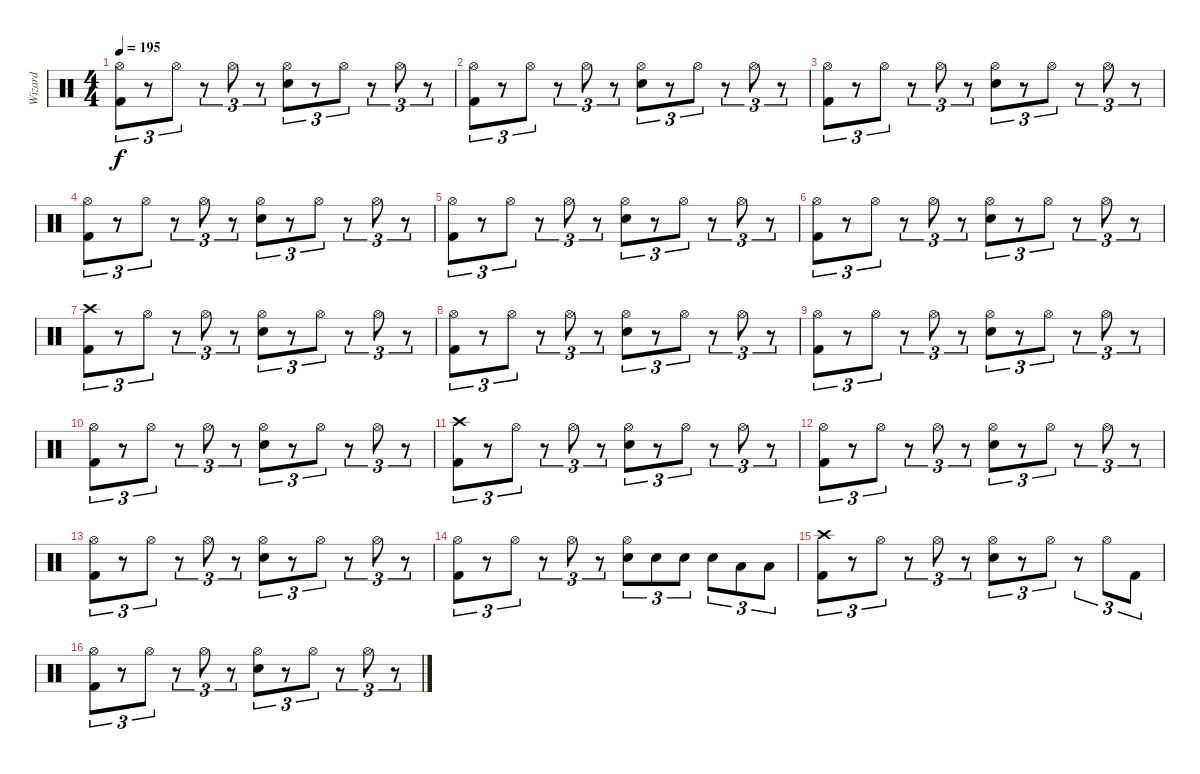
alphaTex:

\track ("Wizard" "Wizard") {instrument percussion}
\staff {score}
\articulation defaults
\ts (4 4)
\tempo 195
\clef neutral
\ks c
("Hi-Hat (open)" "Kick (hit) 2").8{tu (3 2) dy f} r.8{tu (3 2)} "Hi-Hat (open)".8{tu (3 2)} r.8{tu (3 2)} "Hi-Hat (open)".8{tu (3 2)} r.8{tu (3 2)} ("Hi-Hat (open)" "Snare (hit) 2").8{tu (3 2)} r.8{tu (3 2)} "Hi-Hat (open)".8{tu (3 2)} r.8{tu (3 2)} "Hi-Hat (open)".8{tu (3 2)} r.8{tu (3 2)} |
("Hi-Hat (open)" "Kick (hit) 2").8{tu (3 2)} r.8{tu (3 2)} "Hi-Hat (open)".8{tu (3 2)} r.8{tu (3 2)} "Hi-Hat (open)".8{tu (3 2)} r.8{tu (3 2)} ("Hi-Hat (open)" "Snare (hit) 2").8{tu (3 2)} r.8{tu (3 2)} "Hi-Hat (open)".8{tu (3 2)} r.8{tu (3 2)} "Hi-Hat (open)".8{tu (3 2)} r.8{tu (3 2)} |
("Hi-Hat (open)" "Kick (hit) 2").8{tu (3 2)} r.8{tu (3 2)} "Hi-Hat (open)".8{tu (3 2)} r.8{tu (3 2)} "Hi-Hat (open)".8{tu (3 2)} r.8{tu (3 2)} ("Hi-Hat (open)" "Snare (hit) 2").8{tu (3 2)} r.8{tu (3 2)} "Hi-Hat (open)".8{tu (3 2)} r.8{tu (3 2)} "Hi-Hat (open)".8{tu (3 2)} r.8{tu (3 2)} |
("Hi-Hat (open)" "Kick (hit) 2").8{tu (3 2)} r.8{tu (3 2)} "Hi-Hat (open)".8{tu (3 2)} r.8{tu (3 2)} "Hi-Hat (open)".8{tu (3 2)} r.8{tu (3 2)} ("Hi-Hat (open)" "Snare (hit) 2").8{tu (3 2)} r.8{tu (3 2)} "Hi-Hat (open)".8{tu (3 2)} r.8{tu (3 2)} "Hi-Hat (open)".8{tu (3 2)} r.8{tu (3 2)} |
("Hi-Hat (open)" "Kick (hit) 2").8{tu (3 2)} r.8{tu (3 2)} "Hi-Hat (open)".8{tu (3 2)} r.8{tu (3 2)} "Hi-Hat (open)".8{tu (3 2)} r.8{tu (3 2)} ("Hi-Hat (open)" "Snare (hit) 2").8{tu (3 2)} r.8{tu (3 2)} "Hi-Hat (open)".8{tu (3 2)} r.8{tu (3 2)} "Hi-Hat (open)".8{tu (3 2)} r.8{tu (3 2)} |
("Hi-Hat (open)" "Kick (hit) 2").8{tu (3 2)} r.8{tu (3 2)} "Hi-Hat (open)".8{tu (3 2)} r.8{tu (3 2)} "Hi-Hat (open)".8{tu (3 2)} r.8{tu (3 2)} ("Hi-Hat (open)" "Snare (hit) 2").8{tu (3 2)} r.8{tu (3 2)} "Hi-Hat (open)".8{tu (3 2)} r.8{tu (3 2)} "Hi-Hat (open)".8{tu (3 2)} r.8{tu (3 2)} |
("Crash high (hit)" "Kick (hit) 2").8{tu (3 2)} r.8{tu (3 2)} "Hi-Hat (open)".8{tu (3 2)} r.8{tu (3 2)} "Hi-Hat (open)".8{tu (3 2)} r.8{tu (3 2)} ("Hi-Hat (open)" "Snare (hit) 2").8{tu (3 2)} r.8{tu (3 2)} "Hi-Hat (open)".8{tu (3 2)} r.8{tu (3 2)} "Hi-Hat (open)".8{tu (3 2)} r.8{tu (3 2)} |
("Hi-Hat (open)" "Kick (hit) 2").8{tu (3 2)} r.8{tu (3 2)} "Hi-Hat (open)".8{tu (3 2)} r.8{tu (3 2)} "Hi-Hat (open)".8{tu (3 2)} r.8{tu (3 2)} ("Hi-Hat (open)" "Snare (hit) 2").8{tu (3 2)} r.8{tu (3 2)} "Hi-Hat (open)".8{tu (3 2)} r.8{tu (3 2)} "Hi-Hat (open)".8{tu (3 2)} r.8{tu (3 2)} |
("Hi-Hat (open)" "Kick (hit) 2").8{tu (3 2)} r.8{tu (3 2)} "Hi-Hat (open)".8{tu (3 2)} r.8{tu (3 2)} "Hi-Hat (open)".8{tu (3 2)} r.8{tu (3 2)} ("Hi-Hat (open)" "Snare (hit) 2").8{tu (3 2)} r.8{tu (3 2)} "Hi-Hat (open)".8{tu (3 2)} r.8{tu (3 2)} "Hi-Hat (open)".8{tu (3 2)} r.8{tu (3 2)} |
("Hi-Hat (open)" "Kick (hit) 2").8{tu (3 2)} r.8{tu (3 2)} "Hi-Hat (open)".8{tu (3 2)} r.8{tu (3 2)} "Hi-Hat (open)".8{tu (3 2)} r.8{tu (3 2)} ("Hi-Hat (open)" "Snare (hit) 2").8{tu (3 2)} r.8{tu (3 2)} "Hi-Hat (open)".8{tu (3 2)} r.8{tu (3 2)} "Hi-Hat (open)".8{tu (3 2)} r.8{tu (3 2)} |
("Crash high (hit)" "Kick (hit) 2").8{tu (3 2)} r.8{tu (3 2)} "Hi-Hat (open)".8{tu (3 2)} r.8{tu (3 2)} "Hi-Hat (open)".8{tu (3 2)} r.8{tu (3 2)} ("Hi-Hat (open)" "Snare (hit) 2").8{tu (3 2)} r.8{tu (3 2)} "Hi-Hat (open)".8{tu (3 2)} r.8{tu (3 2)} "Hi-Hat (open)".8{tu (3 2)} r.8{tu (3 2)} |
("Hi-Hat (open)" "Kick (hit) 2").8{tu (3 2)} r.8{tu (3 2)} "Hi-Hat (open)".8{tu (3 2)} r.8{tu (3 2)} "Hi-Hat (open)".8{tu (3 2)} r.8{tu (3 2)} ("Hi-Hat (open)" "Snare (hit) 2").8{tu (3 2)} r.8{tu (3 2)} "Hi-Hat (open)".8{tu (3 2)} r.8{tu (3 2)} "Hi-Hat (open)".8{tu (3 2)} r.8{tu (3 2)} |
("Hi-Hat (open)" "Kick (hit) 2").8{tu (3 2)} r.8{tu (3 2)} "Hi-Hat (open)".8{tu (3 2)} r.8{tu (3 2)} "Hi-Hat (open)".8{tu (3 2)} r.8{tu (3 2)} ("Hi-Hat (open)" "Snare (hit) 2").8{tu (3 2)} r.8{tu (3 2)} "Hi-Hat (open)".8{tu (3 2)} r.8{tu (3 2)} "Hi-Hat (open)".8{tu (3 2)} r.8{tu (3 2)} |
("Hi-Hat (open)" "Kick (hit) 2").8{tu (3 2)} r.8{tu (3 2)} "Hi-Hat (open)".8{tu (3 2)} r.8{tu (3 2)} "Hi-Hat (open)".8{tu (3 2)} r.8{tu (3 2)} ("Hi-Hat (open)" "Snare (hit) 2").8{tu (3 2)} "Snare (hit) 2".8{tu (3 2)} "Snare (hit) 2".8{tu (3 2)} "Snare (hit) 2".8{tu (3 2)} "Low Tom (hit)".8{tu (3 2)} "Low Tom (hit)".8{tu (3 2)} |
("Crash high (hit)" "Kick (hit) 2").8{tu (3 2)} r.8{tu (3 2)} "Hi-Hat (open)".8{tu (3 2)} r.8{tu (3 2)} "Hi-Hat (open)".8{tu (3 2)} r.8{tu (3 2)} ("Hi-Hat (open)" "Snare (hit) 2").8{tu (3 2)} r.8{tu (3 2)} "Hi-Hat (open)".8{tu (3 2)} r.8{tu (3 2)} "Hi-Hat (open)".8{tu (3 2)} "Kick (hit) 2".8{tu (3 2)} |
("Hi-Hat (open)" "Kick (hit) 2").8{tu (3 2)} r.8{tu (3 2)} "Hi-Hat (open)".8{tu (3 2)} r.8{tu (3 2)} "Hi-Hat (open)".8{tu (3 2)} r.8{tu (3 2)} ("Hi-Hat (open)" "Snare (hit) 2").8{tu (3 2)} r.8{tu (3 2)} "Hi-Hat (open)".8{tu (3 2)} r.8{tu (3 2)} "Hi-Hat (open)".8{tu (3 2)} r.8{tu (3 2)}
